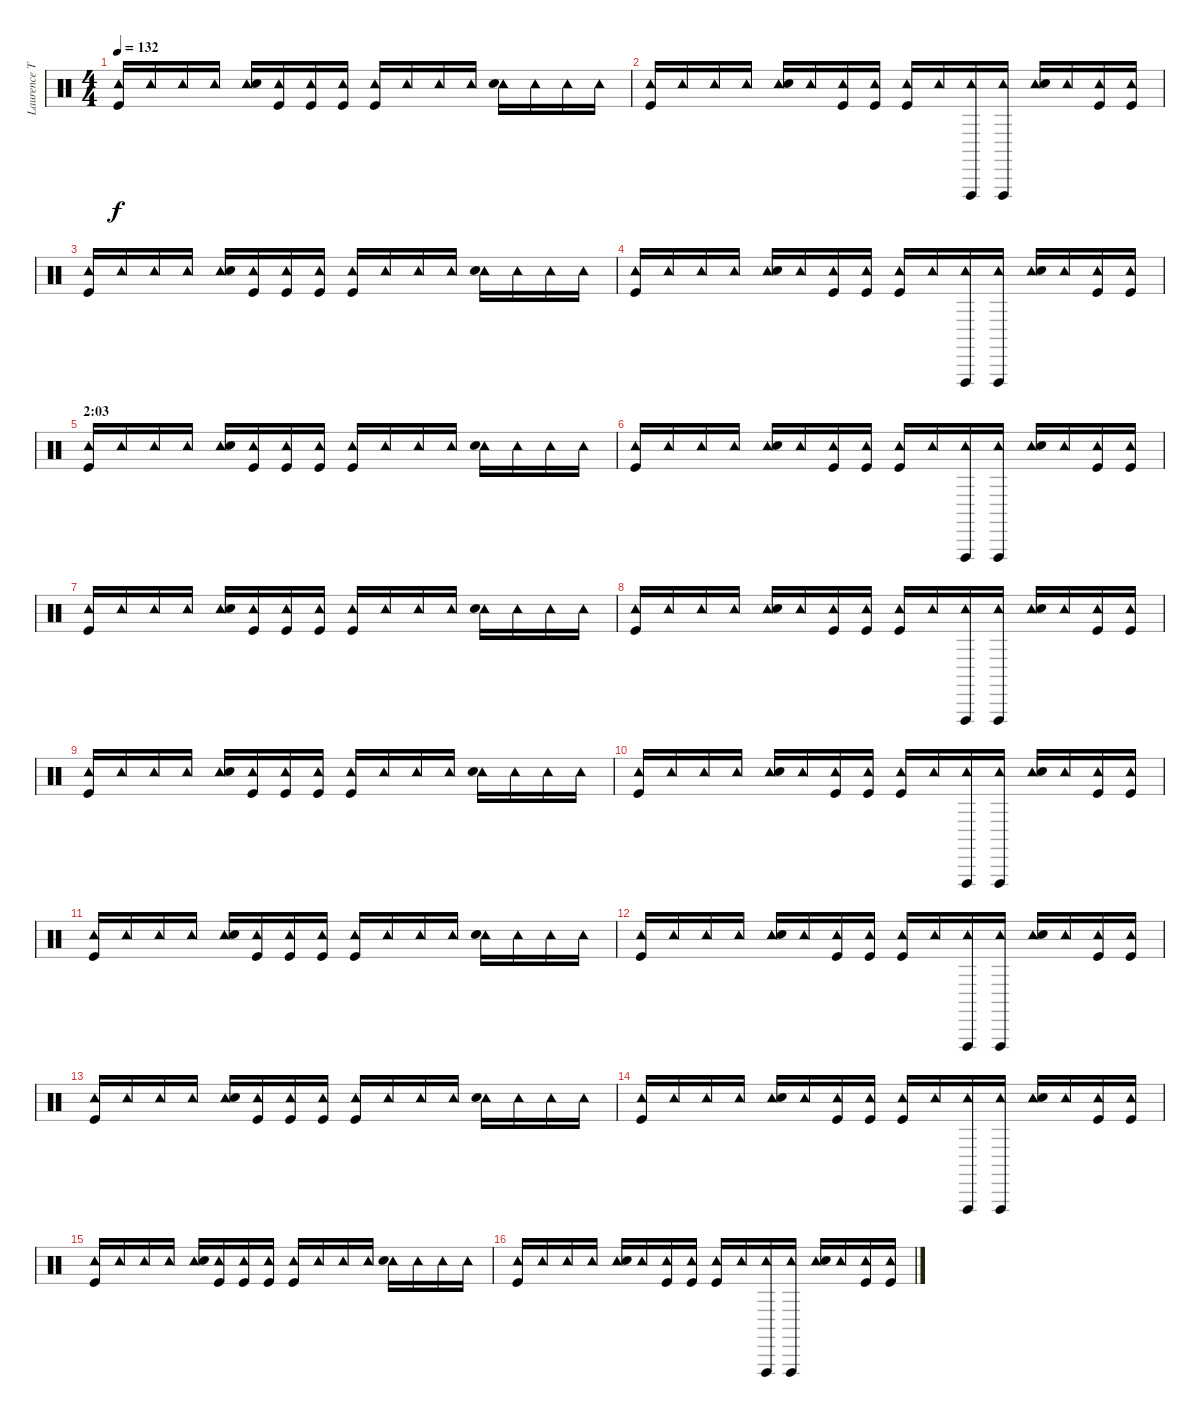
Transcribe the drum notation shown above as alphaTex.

\track ("Laurence Tolhurst (drums)" "Laurence T") {instrument percussion}
\staff {score}
\articulation defaults
\ts (4 4)
\tempo 132
\clef neutral
\ks c
("Tambourine (hit)" "Kick (hit)").16{dy f} "Tambourine (hit)".16 "Tambourine (hit)".16 "Tambourine (hit)".16 ("Tambourine (hit)" "Snare (hit) 2").16 ("Tambourine (hit)" "Kick (hit)").16 ("Tambourine (hit)" "Kick (hit)").16 ("Tambourine (hit)" "Kick (hit)").16 ("Tambourine (hit)" "Kick (hit)").16 "Tambourine (hit)".16 "Tambourine (hit)".16 "Tambourine (hit)".16 ("Tambourine (hit)" "Snare (hit) 2").16 "Tambourine (hit)".16 "Tambourine (hit)".16 "Tambourine (hit)".16 |
("Tambourine (hit)" "Kick (hit)").16 "Tambourine (hit)".16 "Tambourine (hit)".16 "Tambourine (hit)".16 ("Tambourine (hit)" "Snare (hit) 2").16 "Tambourine (hit)".16 ("Tambourine (hit)" "Kick (hit)").16 ("Tambourine (hit)" "Kick (hit)").16 ("Tambourine (hit)" "Kick (hit)").16 "Tambourine (hit)".16 ("Tambourine (hit)" "Vibraslap (hit)").16 ("Tambourine (hit)" "Vibraslap (hit)").16 ("Tambourine (hit)" "Snare (hit) 2").16 "Tambourine (hit)".16 ("Tambourine (hit)" "Kick (hit)").16 ("Tambourine (hit)" "Kick (hit)").16 |
("Tambourine (hit)" "Kick (hit)").16 "Tambourine (hit)".16 "Tambourine (hit)".16 "Tambourine (hit)".16 ("Tambourine (hit)" "Snare (hit) 2").16 ("Tambourine (hit)" "Kick (hit)").16 ("Tambourine (hit)" "Kick (hit)").16 ("Tambourine (hit)" "Kick (hit)").16 ("Tambourine (hit)" "Kick (hit)").16 "Tambourine (hit)".16 "Tambourine (hit)".16 "Tambourine (hit)".16 ("Tambourine (hit)" "Snare (hit) 2").16 "Tambourine (hit)".16 "Tambourine (hit)".16 "Tambourine (hit)".16 |
("Tambourine (hit)" "Kick (hit)").16 "Tambourine (hit)".16 "Tambourine (hit)".16 "Tambourine (hit)".16 ("Tambourine (hit)" "Snare (hit) 2").16 "Tambourine (hit)".16 ("Tambourine (hit)" "Kick (hit)").16 ("Tambourine (hit)" "Kick (hit)").16 ("Tambourine (hit)" "Kick (hit)").16 "Tambourine (hit)".16 ("Tambourine (hit)" "Vibraslap (hit)").16 ("Tambourine (hit)" "Vibraslap (hit)").16 ("Tambourine (hit)" "Snare (hit) 2").16 "Tambourine (hit)".16 ("Tambourine (hit)" "Kick (hit)").16 ("Tambourine (hit)" "Kick (hit)").16 |
\section ("" "2:03")
("Tambourine (hit)" "Kick (hit)").16 "Tambourine (hit)".16 "Tambourine (hit)".16 "Tambourine (hit)".16 ("Tambourine (hit)" "Snare (hit) 2").16 ("Tambourine (hit)" "Kick (hit)").16 ("Tambourine (hit)" "Kick (hit)").16 ("Tambourine (hit)" "Kick (hit)").16 ("Tambourine (hit)" "Kick (hit)").16 "Tambourine (hit)".16 "Tambourine (hit)".16 "Tambourine (hit)".16 ("Tambourine (hit)" "Snare (hit) 2").16 "Tambourine (hit)".16 "Tambourine (hit)".16 "Tambourine (hit)".16 |
("Tambourine (hit)" "Kick (hit)").16 "Tambourine (hit)".16 "Tambourine (hit)".16 "Tambourine (hit)".16 ("Tambourine (hit)" "Snare (hit) 2").16 "Tambourine (hit)".16 ("Tambourine (hit)" "Kick (hit)").16 ("Tambourine (hit)" "Kick (hit)").16 ("Tambourine (hit)" "Kick (hit)").16 "Tambourine (hit)".16 ("Tambourine (hit)" "Vibraslap (hit)").16 ("Tambourine (hit)" "Vibraslap (hit)").16 ("Tambourine (hit)" "Snare (hit) 2").16 "Tambourine (hit)".16 ("Tambourine (hit)" "Kick (hit)").16 ("Tambourine (hit)" "Kick (hit)").16 |
("Tambourine (hit)" "Kick (hit)").16 "Tambourine (hit)".16 "Tambourine (hit)".16 "Tambourine (hit)".16 ("Tambourine (hit)" "Snare (hit) 2").16 ("Tambourine (hit)" "Kick (hit)").16 ("Tambourine (hit)" "Kick (hit)").16 ("Tambourine (hit)" "Kick (hit)").16 ("Tambourine (hit)" "Kick (hit)").16 "Tambourine (hit)".16 "Tambourine (hit)".16 "Tambourine (hit)".16 ("Tambourine (hit)" "Snare (hit) 2").16 "Tambourine (hit)".16 "Tambourine (hit)".16 "Tambourine (hit)".16 |
("Tambourine (hit)" "Kick (hit)").16 "Tambourine (hit)".16 "Tambourine (hit)".16 "Tambourine (hit)".16 ("Tambourine (hit)" "Snare (hit) 2").16 "Tambourine (hit)".16 ("Tambourine (hit)" "Kick (hit)").16 ("Tambourine (hit)" "Kick (hit)").16 ("Tambourine (hit)" "Kick (hit)").16 "Tambourine (hit)".16 ("Tambourine (hit)" "Vibraslap (hit)").16 ("Tambourine (hit)" "Vibraslap (hit)").16 ("Tambourine (hit)" "Snare (hit) 2").16 "Tambourine (hit)".16 ("Tambourine (hit)" "Kick (hit)").16 ("Tambourine (hit)" "Kick (hit)").16 |
("Tambourine (hit)" "Kick (hit)").16 "Tambourine (hit)".16 "Tambourine (hit)".16 "Tambourine (hit)".16 ("Tambourine (hit)" "Snare (hit) 2").16 ("Tambourine (hit)" "Kick (hit)").16 ("Tambourine (hit)" "Kick (hit)").16 ("Tambourine (hit)" "Kick (hit)").16 ("Tambourine (hit)" "Kick (hit)").16 "Tambourine (hit)".16 "Tambourine (hit)".16 "Tambourine (hit)".16 ("Tambourine (hit)" "Snare (hit) 2").16 "Tambourine (hit)".16 "Tambourine (hit)".16 "Tambourine (hit)".16 |
("Tambourine (hit)" "Kick (hit)").16 "Tambourine (hit)".16 "Tambourine (hit)".16 "Tambourine (hit)".16 ("Tambourine (hit)" "Snare (hit) 2").16 "Tambourine (hit)".16 ("Tambourine (hit)" "Kick (hit)").16 ("Tambourine (hit)" "Kick (hit)").16 ("Tambourine (hit)" "Kick (hit)").16 "Tambourine (hit)".16 ("Tambourine (hit)" "Vibraslap (hit)").16 ("Tambourine (hit)" "Vibraslap (hit)").16 ("Tambourine (hit)" "Snare (hit) 2").16 "Tambourine (hit)".16 ("Tambourine (hit)" "Kick (hit)").16 ("Tambourine (hit)" "Kick (hit)").16 |
("Tambourine (hit)" "Kick (hit)").16 "Tambourine (hit)".16 "Tambourine (hit)".16 "Tambourine (hit)".16 ("Tambourine (hit)" "Snare (hit) 2").16 ("Tambourine (hit)" "Kick (hit)").16 ("Tambourine (hit)" "Kick (hit)").16 ("Tambourine (hit)" "Kick (hit)").16 ("Tambourine (hit)" "Kick (hit)").16 "Tambourine (hit)".16 "Tambourine (hit)".16 "Tambourine (hit)".16 ("Tambourine (hit)" "Snare (hit) 2").16 "Tambourine (hit)".16 "Tambourine (hit)".16 "Tambourine (hit)".16 |
("Tambourine (hit)" "Kick (hit)").16 "Tambourine (hit)".16 "Tambourine (hit)".16 "Tambourine (hit)".16 ("Tambourine (hit)" "Snare (hit) 2").16 "Tambourine (hit)".16 ("Tambourine (hit)" "Kick (hit)").16 ("Tambourine (hit)" "Kick (hit)").16 ("Tambourine (hit)" "Kick (hit)").16 "Tambourine (hit)".16 ("Tambourine (hit)" "Vibraslap (hit)").16 ("Tambourine (hit)" "Vibraslap (hit)").16 ("Tambourine (hit)" "Snare (hit) 2").16 "Tambourine (hit)".16 ("Tambourine (hit)" "Kick (hit)").16 ("Tambourine (hit)" "Kick (hit)").16 |
("Tambourine (hit)" "Kick (hit)").16 "Tambourine (hit)".16 "Tambourine (hit)".16 "Tambourine (hit)".16 ("Tambourine (hit)" "Snare (hit) 2").16 ("Tambourine (hit)" "Kick (hit)").16 ("Tambourine (hit)" "Kick (hit)").16 ("Tambourine (hit)" "Kick (hit)").16 ("Tambourine (hit)" "Kick (hit)").16 "Tambourine (hit)".16 "Tambourine (hit)".16 "Tambourine (hit)".16 ("Tambourine (hit)" "Snare (hit) 2").16 "Tambourine (hit)".16 "Tambourine (hit)".16 "Tambourine (hit)".16 |
("Tambourine (hit)" "Kick (hit)").16 "Tambourine (hit)".16 "Tambourine (hit)".16 "Tambourine (hit)".16 ("Tambourine (hit)" "Snare (hit) 2").16 "Tambourine (hit)".16 ("Tambourine (hit)" "Kick (hit)").16 ("Tambourine (hit)" "Kick (hit)").16 ("Tambourine (hit)" "Kick (hit)").16 "Tambourine (hit)".16 ("Tambourine (hit)" "Vibraslap (hit)").16 ("Tambourine (hit)" "Vibraslap (hit)").16 ("Tambourine (hit)" "Snare (hit) 2").16 "Tambourine (hit)".16 ("Tambourine (hit)" "Kick (hit)").16 ("Tambourine (hit)" "Kick (hit)").16 |
("Tambourine (hit)" "Kick (hit)").16 "Tambourine (hit)".16 "Tambourine (hit)".16 "Tambourine (hit)".16 ("Tambourine (hit)" "Snare (hit) 2").16 ("Tambourine (hit)" "Kick (hit)").16 ("Tambourine (hit)" "Kick (hit)").16 ("Tambourine (hit)" "Kick (hit)").16 ("Tambourine (hit)" "Kick (hit)").16 "Tambourine (hit)".16 "Tambourine (hit)".16 "Tambourine (hit)".16 ("Tambourine (hit)" "Snare (hit) 2").16 "Tambourine (hit)".16 "Tambourine (hit)".16 "Tambourine (hit)".16 |
("Tambourine (hit)" "Kick (hit)").16 "Tambourine (hit)".16 "Tambourine (hit)".16 "Tambourine (hit)".16 ("Tambourine (hit)" "Snare (hit) 2").16 "Tambourine (hit)".16 ("Tambourine (hit)" "Kick (hit)").16 ("Tambourine (hit)" "Kick (hit)").16 ("Tambourine (hit)" "Kick (hit)").16 "Tambourine (hit)".16 ("Tambourine (hit)" "Vibraslap (hit)").16 ("Tambourine (hit)" "Vibraslap (hit)").16 ("Tambourine (hit)" "Snare (hit) 2").16 "Tambourine (hit)".16 ("Tambourine (hit)" "Kick (hit)").16 ("Tambourine (hit)" "Kick (hit)").16
